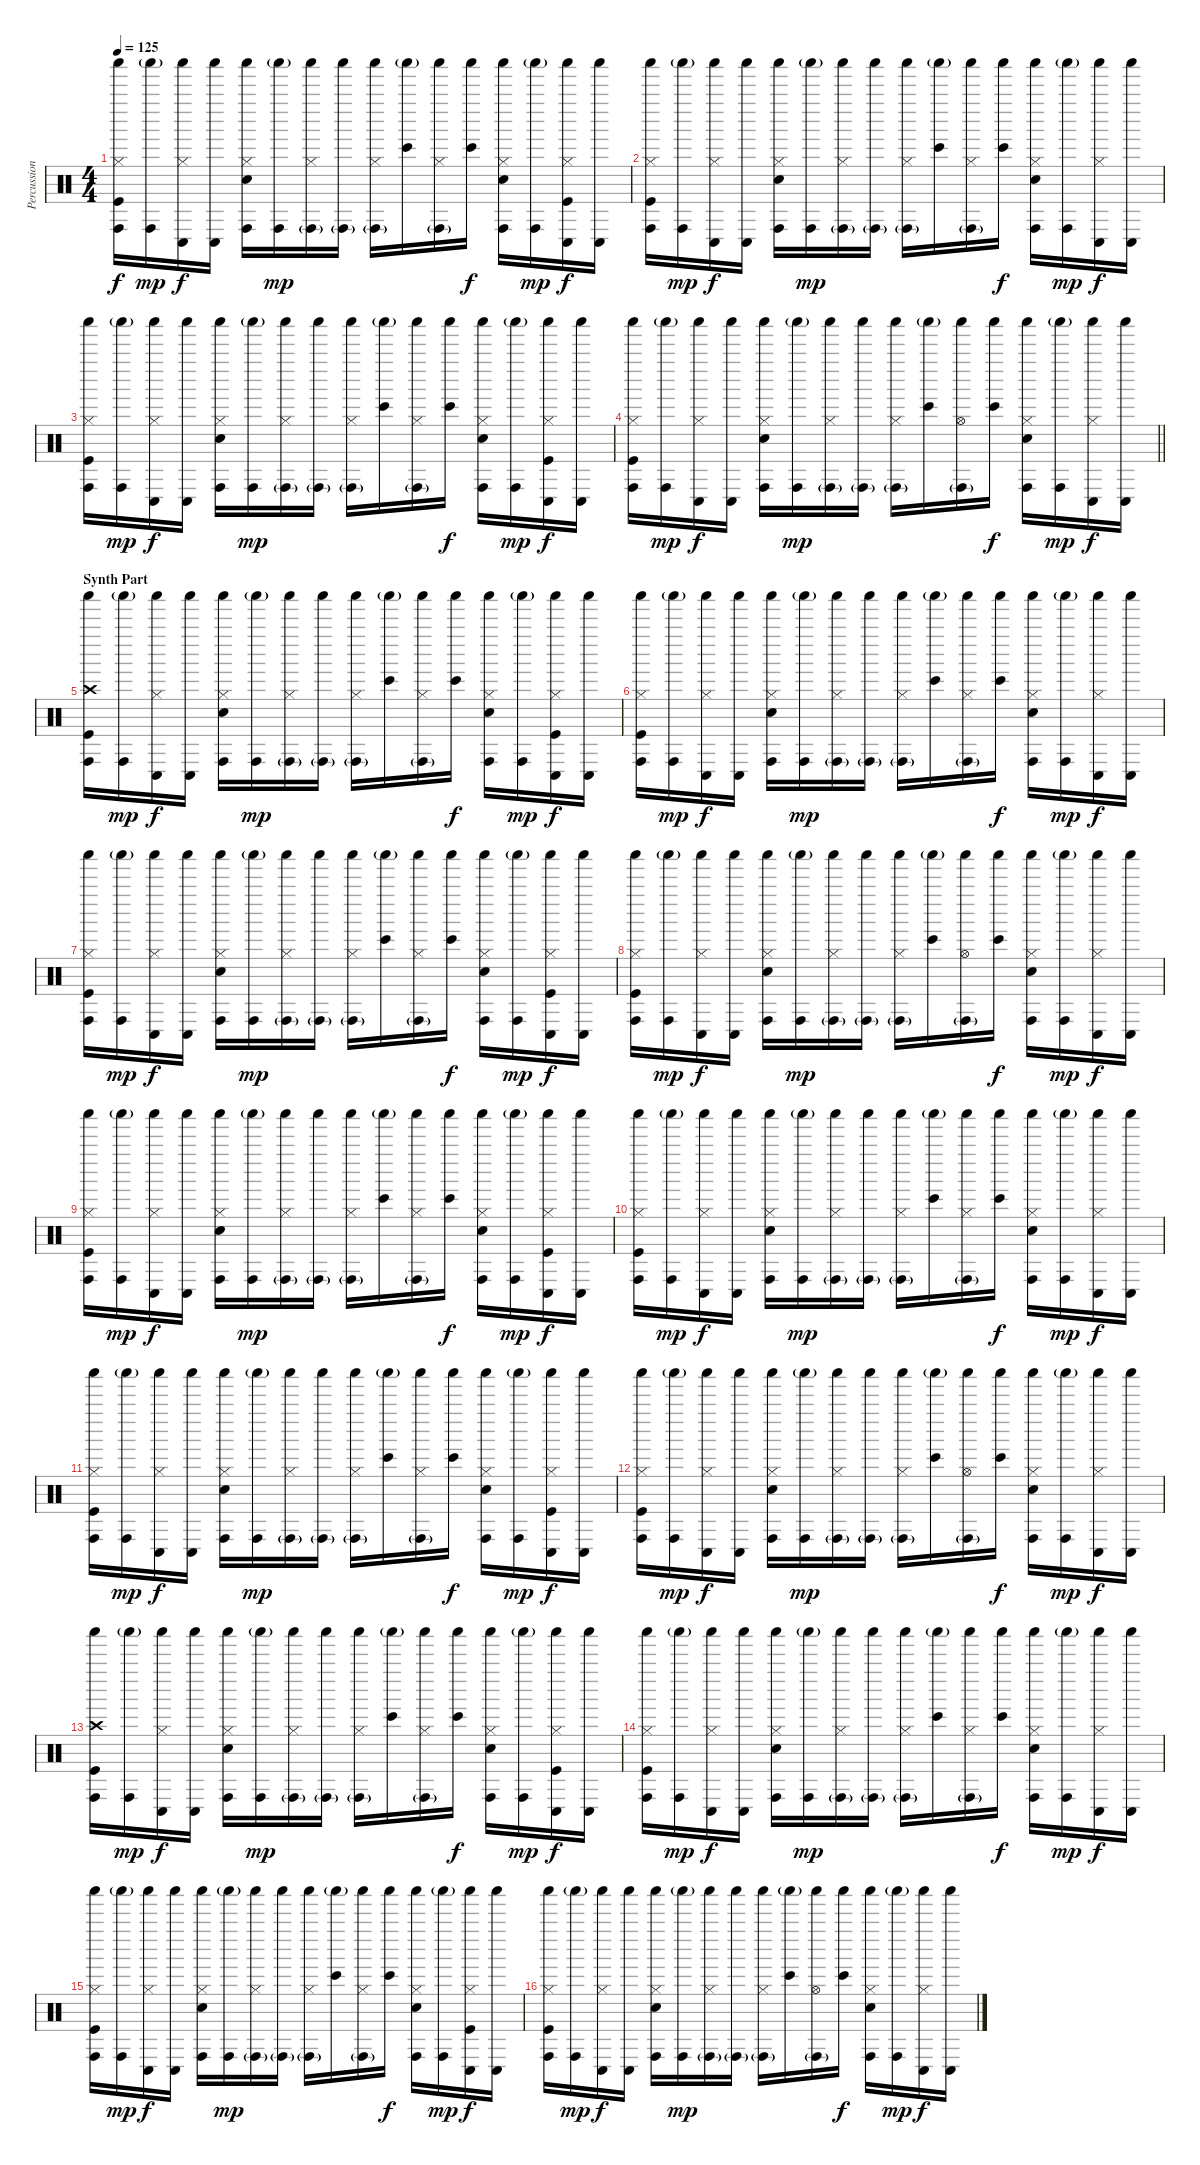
\track ("Percussion" "Percussion") {instrument percussion}
\staff {score}
\articulation defaults
\ts (4 4)
\tempo 125
\clef neutral
\ks c
("Hi-Hat (closed)" "Shaker (hit)" "Conga high (hit)" "Kick (hit)").16{dy f} ("Shaker (hit)"{g} "Conga high (hit)").16{dy mp} ("Hi-Hat (closed)" "Shaker (hit)" "Conga low (hit)").16{dy f} ("Shaker (hit)" "Conga low (hit)").16 ("Hi-Hat (closed)" "Shaker (hit)" "Conga high (hit)" "Electric Snare (hit)").16 ("Shaker (hit)"{g} "Conga high (hit)").16{dy mp} ("Hi-Hat (closed)" "Shaker (hit)" "Conga high (hit)"{g}).16 ("Shaker (hit)" "Conga high (hit)"{g}).16 ("Hi-Hat (closed)" "Shaker (hit)" "Conga high (hit)"{g}).16 ("Shaker (hit)"{g} "Bongo High (hit)").16 ("Hi-Hat (closed)" "Shaker (hit)" "Conga high (hit)"{g}).16 ("Shaker (hit)" "Bongo High (hit)").16{dy f} ("Hi-Hat (closed)" "Shaker (hit)" "Conga high (hit)" "Electric Snare (hit)").16 ("Shaker (hit)"{g} "Conga high (hit)").16{dy mp} ("Hi-Hat (closed)" "Shaker (hit)" "Conga low (hit)" "Kick (hit)").16{dy f} ("Shaker (hit)" "Conga low (hit)").16 |
("Hi-Hat (closed)" "Shaker (hit)" "Conga high (hit)" "Kick (hit)").16 ("Shaker (hit)"{g} "Conga high (hit)").16{dy mp} ("Hi-Hat (closed)" "Shaker (hit)" "Conga low (hit)").16{dy f} ("Shaker (hit)" "Conga low (hit)").16 ("Hi-Hat (closed)" "Shaker (hit)" "Conga high (hit)" "Electric Snare (hit)").16 ("Shaker (hit)"{g} "Conga high (hit)").16{dy mp} ("Hi-Hat (closed)" "Shaker (hit)" "Conga high (hit)"{g}).16 ("Shaker (hit)" "Conga high (hit)"{g}).16 ("Hi-Hat (closed)" "Shaker (hit)" "Conga high (hit)"{g}).16 ("Shaker (hit)"{g} "Bongo High (hit)").16 ("Hi-Hat (closed)" "Shaker (hit)" "Conga high (hit)"{g}).16 ("Shaker (hit)" "Bongo High (hit)").16{dy f} ("Hi-Hat (closed)" "Shaker (hit)" "Conga high (hit)" "Electric Snare (hit)").16 ("Shaker (hit)"{g} "Conga high (hit)").16{dy mp} ("Hi-Hat (closed)" "Shaker (hit)" "Conga low (hit)").16{dy f} ("Shaker (hit)" "Conga low (hit)").16 |
("Hi-Hat (closed)" "Shaker (hit)" "Conga high (hit)" "Kick (hit)").16 ("Shaker (hit)"{g} "Conga high (hit)").16{dy mp} ("Hi-Hat (closed)" "Shaker (hit)" "Conga low (hit)").16{dy f} ("Shaker (hit)" "Conga low (hit)").16 ("Hi-Hat (closed)" "Shaker (hit)" "Conga high (hit)" "Electric Snare (hit)").16 ("Shaker (hit)"{g} "Conga high (hit)").16{dy mp} ("Hi-Hat (closed)" "Shaker (hit)" "Conga high (hit)"{g}).16 ("Shaker (hit)" "Conga high (hit)"{g}).16 ("Hi-Hat (closed)" "Shaker (hit)" "Conga high (hit)"{g}).16 ("Shaker (hit)"{g} "Bongo High (hit)").16 ("Hi-Hat (closed)" "Shaker (hit)" "Conga high (hit)"{g}).16 ("Shaker (hit)" "Bongo High (hit)").16{dy f} ("Hi-Hat (closed)" "Shaker (hit)" "Conga high (hit)" "Electric Snare (hit)").16 ("Shaker (hit)"{g} "Conga high (hit)").16{dy mp} ("Hi-Hat (closed)" "Shaker (hit)" "Conga low (hit)" "Kick (hit)").16{dy f} ("Shaker (hit)" "Conga low (hit)").16 |
\barLineRight lightlight
("Hi-Hat (closed)" "Shaker (hit)" "Conga high (hit)" "Kick (hit)").16 ("Shaker (hit)"{g} "Conga high (hit)").16{dy mp} ("Hi-Hat (closed)" "Shaker (hit)" "Conga low (hit)").16{dy f} ("Shaker (hit)" "Conga low (hit)").16 ("Hi-Hat (closed)" "Shaker (hit)" "Conga high (hit)" "Electric Snare (hit)").16 ("Shaker (hit)"{g} "Conga high (hit)").16{dy mp} ("Hi-Hat (closed)" "Shaker (hit)" "Conga high (hit)"{g}).16 ("Shaker (hit)" "Conga high (hit)"{g}).16 ("Hi-Hat (closed)" "Shaker (hit)" "Conga high (hit)"{g}).16 ("Shaker (hit)"{g} "Bongo High (hit)").16 ("Hi-Hat (open)" "Shaker (hit)" "Conga high (hit)"{g}).16 ("Shaker (hit)" "Bongo High (hit)").16{dy f} ("Hi-Hat (closed)" "Shaker (hit)" "Conga high (hit)" "Electric Snare (hit)").16 ("Shaker (hit)"{g} "Conga high (hit)").16{dy mp} ("Hi-Hat (closed)" "Shaker (hit)" "Conga low (hit)").16{dy f} ("Shaker (hit)" "Conga low (hit)").16 |
\section ("" "Synth Part")
("Crash high (hit)" "Shaker (hit)" "Conga high (hit)" "Kick (hit)").16 ("Shaker (hit)"{g} "Conga high (hit)").16{dy mp} ("Hi-Hat (closed)" "Shaker (hit)" "Conga low (hit)").16{dy f} ("Shaker (hit)" "Conga low (hit)").16 ("Hi-Hat (closed)" "Shaker (hit)" "Conga high (hit)" "Electric Snare (hit)").16 ("Shaker (hit)"{g} "Conga high (hit)").16{dy mp} ("Hi-Hat (closed)" "Shaker (hit)" "Conga high (hit)"{g}).16 ("Shaker (hit)" "Conga high (hit)"{g}).16 ("Hi-Hat (closed)" "Shaker (hit)" "Conga high (hit)"{g}).16 ("Shaker (hit)"{g} "Bongo High (hit)").16 ("Hi-Hat (closed)" "Shaker (hit)" "Conga high (hit)"{g}).16 ("Shaker (hit)" "Bongo High (hit)").16{dy f} ("Hi-Hat (closed)" "Shaker (hit)" "Conga high (hit)" "Electric Snare (hit)").16 ("Shaker (hit)"{g} "Conga high (hit)").16{dy mp} ("Hi-Hat (closed)" "Shaker (hit)" "Conga low (hit)" "Kick (hit)").16{dy f} ("Shaker (hit)" "Conga low (hit)").16 |
("Hi-Hat (closed)" "Shaker (hit)" "Conga high (hit)" "Kick (hit)").16 ("Shaker (hit)"{g} "Conga high (hit)").16{dy mp} ("Hi-Hat (closed)" "Shaker (hit)" "Conga low (hit)").16{dy f} ("Shaker (hit)" "Conga low (hit)").16 ("Hi-Hat (closed)" "Shaker (hit)" "Conga high (hit)" "Electric Snare (hit)").16 ("Shaker (hit)"{g} "Conga high (hit)").16{dy mp} ("Hi-Hat (closed)" "Shaker (hit)" "Conga high (hit)"{g}).16 ("Shaker (hit)" "Conga high (hit)"{g}).16 ("Hi-Hat (closed)" "Shaker (hit)" "Conga high (hit)"{g}).16 ("Shaker (hit)"{g} "Bongo High (hit)").16 ("Hi-Hat (closed)" "Shaker (hit)" "Conga high (hit)"{g}).16 ("Shaker (hit)" "Bongo High (hit)").16{dy f} ("Hi-Hat (closed)" "Shaker (hit)" "Conga high (hit)" "Electric Snare (hit)").16 ("Shaker (hit)"{g} "Conga high (hit)").16{dy mp} ("Hi-Hat (closed)" "Shaker (hit)" "Conga low (hit)").16{dy f} ("Shaker (hit)" "Conga low (hit)").16 |
("Hi-Hat (closed)" "Shaker (hit)" "Conga high (hit)" "Kick (hit)").16 ("Shaker (hit)"{g} "Conga high (hit)").16{dy mp} ("Hi-Hat (closed)" "Shaker (hit)" "Conga low (hit)").16{dy f} ("Shaker (hit)" "Conga low (hit)").16 ("Hi-Hat (closed)" "Shaker (hit)" "Conga high (hit)" "Electric Snare (hit)").16 ("Shaker (hit)"{g} "Conga high (hit)").16{dy mp} ("Hi-Hat (closed)" "Shaker (hit)" "Conga high (hit)"{g}).16 ("Shaker (hit)" "Conga high (hit)"{g}).16 ("Hi-Hat (closed)" "Shaker (hit)" "Conga high (hit)"{g}).16 ("Shaker (hit)"{g} "Bongo High (hit)").16 ("Hi-Hat (closed)" "Shaker (hit)" "Conga high (hit)"{g}).16 ("Shaker (hit)" "Bongo High (hit)").16{dy f} ("Hi-Hat (closed)" "Shaker (hit)" "Conga high (hit)" "Electric Snare (hit)").16 ("Shaker (hit)"{g} "Conga high (hit)").16{dy mp} ("Hi-Hat (closed)" "Shaker (hit)" "Conga low (hit)" "Kick (hit)").16{dy f} ("Shaker (hit)" "Conga low (hit)").16 |
("Hi-Hat (closed)" "Shaker (hit)" "Conga high (hit)" "Kick (hit)").16 ("Shaker (hit)"{g} "Conga high (hit)").16{dy mp} ("Hi-Hat (closed)" "Shaker (hit)" "Conga low (hit)").16{dy f} ("Shaker (hit)" "Conga low (hit)").16 ("Hi-Hat (closed)" "Shaker (hit)" "Conga high (hit)" "Electric Snare (hit)").16 ("Shaker (hit)"{g} "Conga high (hit)").16{dy mp} ("Hi-Hat (closed)" "Shaker (hit)" "Conga high (hit)"{g}).16 ("Shaker (hit)" "Conga high (hit)"{g}).16 ("Hi-Hat (closed)" "Shaker (hit)" "Conga high (hit)"{g}).16 ("Shaker (hit)"{g} "Bongo High (hit)").16 ("Hi-Hat (open)" "Shaker (hit)" "Conga high (hit)"{g}).16 ("Shaker (hit)" "Bongo High (hit)").16{dy f} ("Hi-Hat (closed)" "Shaker (hit)" "Conga high (hit)" "Electric Snare (hit)").16 ("Shaker (hit)"{g} "Conga high (hit)").16{dy mp} ("Hi-Hat (closed)" "Shaker (hit)" "Conga low (hit)").16{dy f} ("Shaker (hit)" "Conga low (hit)").16 |
("Hi-Hat (closed)" "Shaker (hit)" "Conga high (hit)" "Kick (hit)").16 ("Shaker (hit)"{g} "Conga high (hit)").16{dy mp} ("Hi-Hat (closed)" "Shaker (hit)" "Conga low (hit)").16{dy f} ("Shaker (hit)" "Conga low (hit)").16 ("Hi-Hat (closed)" "Shaker (hit)" "Conga high (hit)" "Electric Snare (hit)").16 ("Shaker (hit)"{g} "Conga high (hit)").16{dy mp} ("Hi-Hat (closed)" "Shaker (hit)" "Conga high (hit)"{g}).16 ("Shaker (hit)" "Conga high (hit)"{g}).16 ("Hi-Hat (closed)" "Shaker (hit)" "Conga high (hit)"{g}).16 ("Shaker (hit)"{g} "Bongo High (hit)").16 ("Hi-Hat (closed)" "Shaker (hit)" "Conga high (hit)"{g}).16 ("Shaker (hit)" "Bongo High (hit)").16{dy f} ("Hi-Hat (closed)" "Shaker (hit)" "Conga high (hit)" "Electric Snare (hit)").16 ("Shaker (hit)"{g} "Conga high (hit)").16{dy mp} ("Hi-Hat (closed)" "Shaker (hit)" "Conga low (hit)" "Kick (hit)").16{dy f} ("Shaker (hit)" "Conga low (hit)").16 |
("Hi-Hat (closed)" "Shaker (hit)" "Conga high (hit)" "Kick (hit)").16 ("Shaker (hit)"{g} "Conga high (hit)").16{dy mp} ("Hi-Hat (closed)" "Shaker (hit)" "Conga low (hit)").16{dy f} ("Shaker (hit)" "Conga low (hit)").16 ("Hi-Hat (closed)" "Shaker (hit)" "Conga high (hit)" "Electric Snare (hit)").16 ("Shaker (hit)"{g} "Conga high (hit)").16{dy mp} ("Hi-Hat (closed)" "Shaker (hit)" "Conga high (hit)"{g}).16 ("Shaker (hit)" "Conga high (hit)"{g}).16 ("Hi-Hat (closed)" "Shaker (hit)" "Conga high (hit)"{g}).16 ("Shaker (hit)"{g} "Bongo High (hit)").16 ("Hi-Hat (closed)" "Shaker (hit)" "Conga high (hit)"{g}).16 ("Shaker (hit)" "Bongo High (hit)").16{dy f} ("Hi-Hat (closed)" "Shaker (hit)" "Conga high (hit)" "Electric Snare (hit)").16 ("Shaker (hit)"{g} "Conga high (hit)").16{dy mp} ("Hi-Hat (closed)" "Shaker (hit)" "Conga low (hit)").16{dy f} ("Shaker (hit)" "Conga low (hit)").16 |
("Hi-Hat (closed)" "Shaker (hit)" "Conga high (hit)" "Kick (hit)").16 ("Shaker (hit)"{g} "Conga high (hit)").16{dy mp} ("Hi-Hat (closed)" "Shaker (hit)" "Conga low (hit)").16{dy f} ("Shaker (hit)" "Conga low (hit)").16 ("Hi-Hat (closed)" "Shaker (hit)" "Conga high (hit)" "Electric Snare (hit)").16 ("Shaker (hit)"{g} "Conga high (hit)").16{dy mp} ("Hi-Hat (closed)" "Shaker (hit)" "Conga high (hit)"{g}).16 ("Shaker (hit)" "Conga high (hit)"{g}).16 ("Hi-Hat (closed)" "Shaker (hit)" "Conga high (hit)"{g}).16 ("Shaker (hit)"{g} "Bongo High (hit)").16 ("Hi-Hat (closed)" "Shaker (hit)" "Conga high (hit)"{g}).16 ("Shaker (hit)" "Bongo High (hit)").16{dy f} ("Hi-Hat (closed)" "Shaker (hit)" "Conga high (hit)" "Electric Snare (hit)").16 ("Shaker (hit)"{g} "Conga high (hit)").16{dy mp} ("Hi-Hat (closed)" "Shaker (hit)" "Conga low (hit)" "Kick (hit)").16{dy f} ("Shaker (hit)" "Conga low (hit)").16 |
("Hi-Hat (closed)" "Shaker (hit)" "Conga high (hit)" "Kick (hit)").16 ("Shaker (hit)"{g} "Conga high (hit)").16{dy mp} ("Hi-Hat (closed)" "Shaker (hit)" "Conga low (hit)").16{dy f} ("Shaker (hit)" "Conga low (hit)").16 ("Hi-Hat (closed)" "Shaker (hit)" "Conga high (hit)" "Electric Snare (hit)").16 ("Shaker (hit)"{g} "Conga high (hit)").16{dy mp} ("Hi-Hat (closed)" "Shaker (hit)" "Conga high (hit)"{g}).16 ("Shaker (hit)" "Conga high (hit)"{g}).16 ("Hi-Hat (closed)" "Shaker (hit)" "Conga high (hit)"{g}).16 ("Shaker (hit)"{g} "Bongo High (hit)").16 ("Hi-Hat (open)" "Shaker (hit)" "Conga high (hit)"{g}).16 ("Shaker (hit)" "Bongo High (hit)").16{dy f} ("Hi-Hat (closed)" "Shaker (hit)" "Conga high (hit)" "Electric Snare (hit)").16 ("Shaker (hit)"{g} "Conga high (hit)").16{dy mp} ("Hi-Hat (closed)" "Shaker (hit)" "Conga low (hit)").16{dy f} ("Shaker (hit)" "Conga low (hit)").16 |
("Crash high (hit)" "Shaker (hit)" "Conga high (hit)" "Kick (hit)").16 ("Shaker (hit)"{g} "Conga high (hit)").16{dy mp} ("Hi-Hat (closed)" "Shaker (hit)" "Conga low (hit)").16{dy f} ("Shaker (hit)" "Conga low (hit)").16 ("Hi-Hat (closed)" "Shaker (hit)" "Conga high (hit)" "Electric Snare (hit)").16 ("Shaker (hit)"{g} "Conga high (hit)").16{dy mp} ("Hi-Hat (closed)" "Shaker (hit)" "Conga high (hit)"{g}).16 ("Shaker (hit)" "Conga high (hit)"{g}).16 ("Hi-Hat (closed)" "Shaker (hit)" "Conga high (hit)"{g}).16 ("Shaker (hit)"{g} "Bongo High (hit)").16 ("Hi-Hat (closed)" "Shaker (hit)" "Conga high (hit)"{g}).16 ("Shaker (hit)" "Bongo High (hit)").16{dy f} ("Hi-Hat (closed)" "Shaker (hit)" "Conga high (hit)" "Electric Snare (hit)").16 ("Shaker (hit)"{g} "Conga high (hit)").16{dy mp} ("Hi-Hat (closed)" "Shaker (hit)" "Conga low (hit)" "Kick (hit)").16{dy f} ("Shaker (hit)" "Conga low (hit)").16 |
("Hi-Hat (closed)" "Shaker (hit)" "Conga high (hit)" "Kick (hit)").16 ("Shaker (hit)"{g} "Conga high (hit)").16{dy mp} ("Hi-Hat (closed)" "Shaker (hit)" "Conga low (hit)").16{dy f} ("Shaker (hit)" "Conga low (hit)").16 ("Hi-Hat (closed)" "Shaker (hit)" "Conga high (hit)" "Electric Snare (hit)").16 ("Shaker (hit)"{g} "Conga high (hit)").16{dy mp} ("Hi-Hat (closed)" "Shaker (hit)" "Conga high (hit)"{g}).16 ("Shaker (hit)" "Conga high (hit)"{g}).16 ("Hi-Hat (closed)" "Shaker (hit)" "Conga high (hit)"{g}).16 ("Shaker (hit)"{g} "Bongo High (hit)").16 ("Hi-Hat (closed)" "Shaker (hit)" "Conga high (hit)"{g}).16 ("Shaker (hit)" "Bongo High (hit)").16{dy f} ("Hi-Hat (closed)" "Shaker (hit)" "Conga high (hit)" "Electric Snare (hit)").16 ("Shaker (hit)"{g} "Conga high (hit)").16{dy mp} ("Hi-Hat (closed)" "Shaker (hit)" "Conga low (hit)").16{dy f} ("Shaker (hit)" "Conga low (hit)").16 |
("Hi-Hat (closed)" "Shaker (hit)" "Conga high (hit)" "Kick (hit)").16 ("Shaker (hit)"{g} "Conga high (hit)").16{dy mp} ("Hi-Hat (closed)" "Shaker (hit)" "Conga low (hit)").16{dy f} ("Shaker (hit)" "Conga low (hit)").16 ("Hi-Hat (closed)" "Shaker (hit)" "Conga high (hit)" "Electric Snare (hit)").16 ("Shaker (hit)"{g} "Conga high (hit)").16{dy mp} ("Hi-Hat (closed)" "Shaker (hit)" "Conga high (hit)"{g}).16 ("Shaker (hit)" "Conga high (hit)"{g}).16 ("Hi-Hat (closed)" "Shaker (hit)" "Conga high (hit)"{g}).16 ("Shaker (hit)"{g} "Bongo High (hit)").16 ("Hi-Hat (closed)" "Shaker (hit)" "Conga high (hit)"{g}).16 ("Shaker (hit)" "Bongo High (hit)").16{dy f} ("Hi-Hat (closed)" "Shaker (hit)" "Conga high (hit)" "Electric Snare (hit)").16 ("Shaker (hit)"{g} "Conga high (hit)").16{dy mp} ("Hi-Hat (closed)" "Shaker (hit)" "Conga low (hit)" "Kick (hit)").16{dy f} ("Shaker (hit)" "Conga low (hit)").16 |
("Hi-Hat (closed)" "Shaker (hit)" "Conga high (hit)" "Kick (hit)").16 ("Shaker (hit)"{g} "Conga high (hit)").16{dy mp} ("Hi-Hat (closed)" "Shaker (hit)" "Conga low (hit)").16{dy f} ("Shaker (hit)" "Conga low (hit)").16 ("Hi-Hat (closed)" "Shaker (hit)" "Conga high (hit)" "Electric Snare (hit)").16 ("Shaker (hit)"{g} "Conga high (hit)").16{dy mp} ("Hi-Hat (closed)" "Shaker (hit)" "Conga high (hit)"{g}).16 ("Shaker (hit)" "Conga high (hit)"{g}).16 ("Hi-Hat (closed)" "Shaker (hit)" "Conga high (hit)"{g}).16 ("Shaker (hit)"{g} "Bongo High (hit)").16 ("Hi-Hat (open)" "Shaker (hit)" "Conga high (hit)"{g}).16 ("Shaker (hit)" "Bongo High (hit)").16{dy f} ("Hi-Hat (closed)" "Shaker (hit)" "Conga high (hit)" "Electric Snare (hit)").16 ("Shaker (hit)"{g} "Conga high (hit)").16{dy mp} ("Hi-Hat (closed)" "Shaker (hit)" "Conga low (hit)").16{dy f} ("Shaker (hit)" "Conga low (hit)").16
